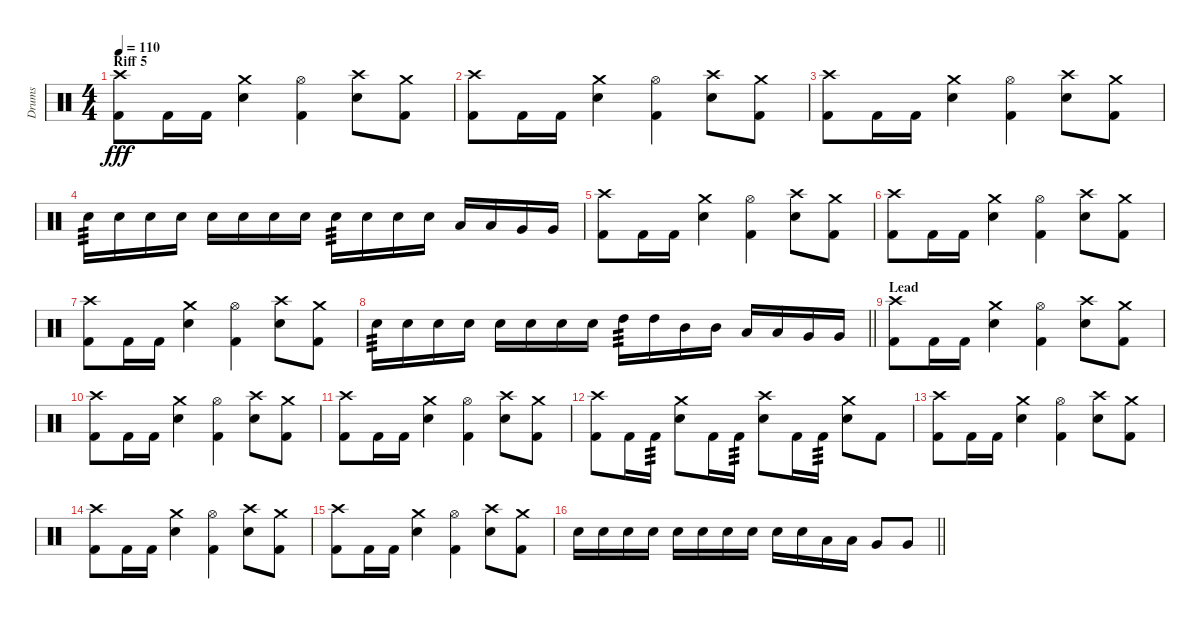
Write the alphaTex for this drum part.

\track ("Drums" "Drums") {instrument percussion}
\staff {score}
\articulation defaults
\ts (4 4)
\section ("" "Riff 5")
\tempo 110
\clef neutral
\ks c
("Crash high (hit)" "Kick (hit) 2").8{dy fff} "Kick (hit) 2".16 "Kick (hit) 2".16 ("Crash medium (hit)" "Electric Snare (hit)").4 ("Hi-Hat (open)" "Kick (hit) 2").4 ("Crash high (hit)" "Electric Snare (hit)").8 ("Crash medium (hit)" "Kick (hit) 2").8 |
("Crash high (hit)" "Kick (hit) 2").8 "Kick (hit) 2".16 "Kick (hit) 2".16 ("Crash medium (hit)" "Electric Snare (hit)").4 ("Hi-Hat (open)" "Kick (hit) 2").4 ("Crash high (hit)" "Electric Snare (hit)").8 ("Crash medium (hit)" "Kick (hit) 2").8 |
("Crash high (hit)" "Kick (hit) 2").8 "Kick (hit) 2".16 "Kick (hit) 2".16 ("Crash medium (hit)" "Electric Snare (hit)").4 ("Hi-Hat (open)" "Kick (hit) 2").4 ("Crash high (hit)" "Electric Snare (hit)").8 ("Crash medium (hit)" "Kick (hit) 2").8 |
"Electric Snare (hit)".16{tp 3} "Electric Snare (hit)".16 "Electric Snare (hit)".16 "Electric Snare (hit)".16 "Electric Snare (hit)".16 "Electric Snare (hit)".16 "Electric Snare (hit)".16 "Electric Snare (hit)".16 "Electric Snare (hit)".16{tp 3} "Electric Snare (hit)".16 "Electric Snare (hit)".16 "Electric Snare (hit)".16 "Low Tom (hit)".16 "Low Tom (hit)".16 "Very Low Tom (hit)".16 "Very Low Tom (hit)".16 |
("Crash high (hit)" "Kick (hit) 2").8 "Kick (hit) 2".16 "Kick (hit) 2".16 ("Crash medium (hit)" "Electric Snare (hit)").4 ("Hi-Hat (open)" "Kick (hit) 2").4 ("Crash high (hit)" "Electric Snare (hit)").8 ("Crash medium (hit)" "Kick (hit) 2").8 |
("Crash high (hit)" "Kick (hit) 2").8 "Kick (hit) 2".16 "Kick (hit) 2".16 ("Crash medium (hit)" "Electric Snare (hit)").4 ("Hi-Hat (open)" "Kick (hit) 2").4 ("Crash high (hit)" "Electric Snare (hit)").8 ("Crash medium (hit)" "Kick (hit) 2").8 |
("Crash high (hit)" "Kick (hit) 2").8 "Kick (hit) 2".16 "Kick (hit) 2".16 ("Crash medium (hit)" "Electric Snare (hit)").4 ("Hi-Hat (open)" "Kick (hit) 2").4 ("Crash high (hit)" "Electric Snare (hit)").8 ("Crash medium (hit)" "Kick (hit) 2").8 |
\barLineRight lightlight "Electric Snare (hit)".16{tp 3} "Electric Snare (hit)".16 "Electric Snare (hit)".16 "Electric Snare (hit)".16 "Electric Snare (hit)".16 "Electric Snare (hit)".16 "Electric Snare (hit)".16 "Electric Snare (hit)".16 "High Tom (hit)".16{tp 3} "High Tom (hit)".16 "Mid Tom (hit)".16 "Mid Tom (hit)".16 "Low Tom (hit)".16 "Low Tom (hit)".16 "Very Low Tom (hit)".16 "Very Low Tom (hit)".16
|
\section ("" "Lead")
("Crash high (hit)" "Kick (hit) 2").8 "Kick (hit) 2".16 "Kick (hit) 2".16 ("Crash medium (hit)" "Electric Snare (hit)").4 ("Hi-Hat (open)" "Kick (hit) 2").4 ("Crash high (hit)" "Electric Snare (hit)").8 ("Crash medium (hit)" "Kick (hit) 2").8 |
("Crash high (hit)" "Kick (hit) 2").8 "Kick (hit) 2".16 "Kick (hit) 2".16 ("Crash medium (hit)" "Electric Snare (hit)").4 ("Hi-Hat (open)" "Kick (hit) 2").4 ("Crash high (hit)" "Electric Snare (hit)").8 ("Crash medium (hit)" "Kick (hit) 2").8 |
("Crash high (hit)" "Kick (hit) 2").8 "Kick (hit) 2".16 "Kick (hit) 2".16 ("Crash medium (hit)" "Electric Snare (hit)").4 ("Hi-Hat (open)" "Kick (hit) 2").4 ("Crash high (hit)" "Electric Snare (hit)").8 ("Crash medium (hit)" "Kick (hit) 2").8 |
("Crash high (hit)" "Kick (hit) 2").8 "Kick (hit) 2".16 "Kick (hit) 2".16{tp 3} ("Crash medium (hit)" "Electric Snare (hit)").8 "Kick (hit) 2".16 "Kick (hit) 2".16{tp 3} ("Crash high (hit)" "Electric Snare (hit)").8 "Kick (hit) 2".16 "Kick (hit) 2".16{tp 3} ("Crash medium (hit)" "Electric Snare (hit)").8 "Kick (hit) 2".8 |
("Crash high (hit)" "Kick (hit) 2").8 "Kick (hit) 2".16 "Kick (hit) 2".16 ("Crash medium (hit)" "Electric Snare (hit)").4 ("Hi-Hat (open)" "Kick (hit) 2").4 ("Crash high (hit)" "Electric Snare (hit)").8 ("Crash medium (hit)" "Kick (hit) 2").8 |
("Crash high (hit)" "Kick (hit) 2").8 "Kick (hit) 2".16 "Kick (hit) 2".16 ("Crash medium (hit)" "Electric Snare (hit)").4 ("Hi-Hat (open)" "Kick (hit) 2").4 ("Crash high (hit)" "Electric Snare (hit)").8 ("Crash medium (hit)" "Kick (hit) 2").8 |
("Crash high (hit)" "Kick (hit) 2").8 "Kick (hit) 2".16 "Kick (hit) 2".16 ("Crash medium (hit)" "Electric Snare (hit)").4 ("Hi-Hat (open)" "Kick (hit) 2").4 ("Crash high (hit)" "Electric Snare (hit)").8 ("Crash medium (hit)" "Kick (hit) 2").8 |
\barLineRight lightlight "Electric Snare (hit)".16 "Electric Snare (hit)".16 "Electric Snare (hit)".16 "Electric Snare (hit)".16 "Electric Snare (hit)".16 "Electric Snare (hit)".16 "Electric Snare (hit)".16 "Electric Snare (hit)".16 "Electric Snare (hit)".16 "Electric Snare (hit)".16 "Low Tom (hit)".16 "Low Tom (hit)".16 "Very Low Tom (hit)".8 "Very Low Tom (hit)".8
